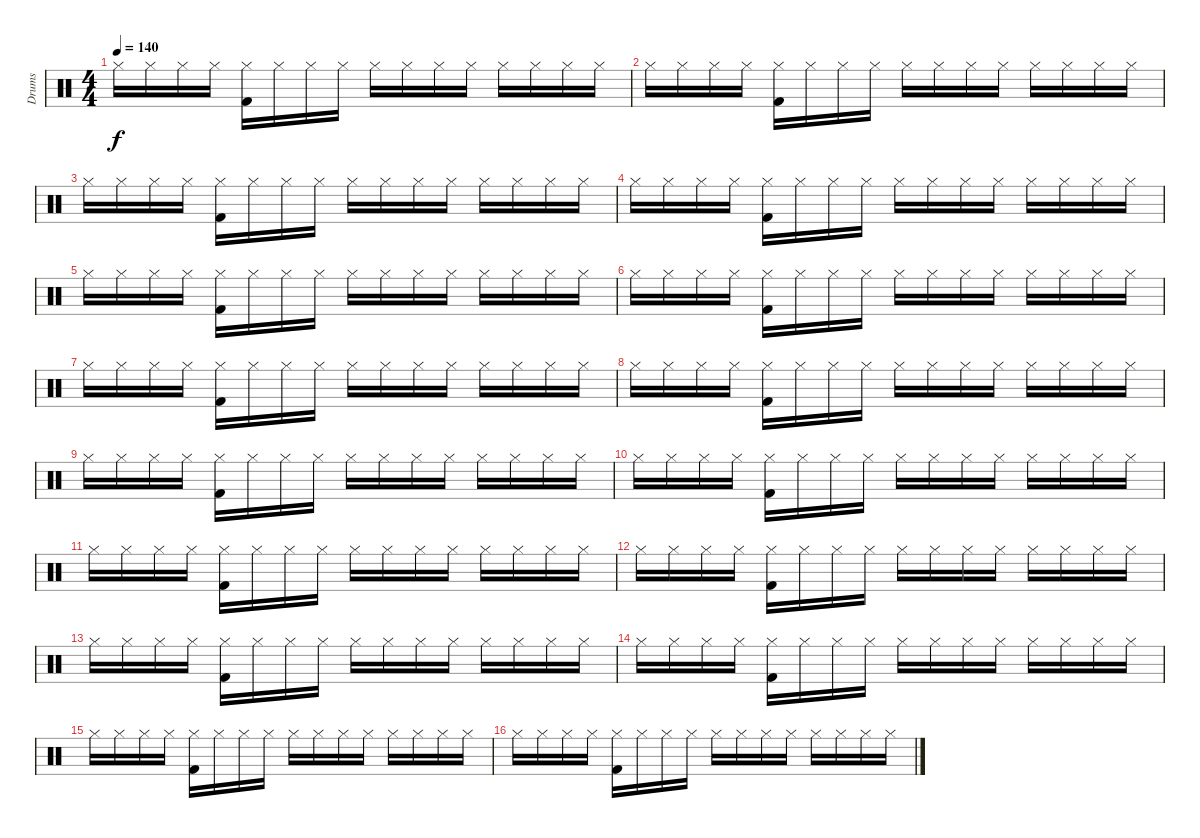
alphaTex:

\track ("Drums" "Drums") {instrument percussion}
\staff {score}
\articulation defaults
\ts (4 4)
\tempo 140
\clef neutral
\ks c "Hi-Hat (closed)".16{dy f} "Hi-Hat (closed)".16 "Hi-Hat (closed)".16 "Hi-Hat (closed)".16
("Hi-Hat (closed)" "Kick (hit) 2").16 "Hi-Hat (closed)".16 "Hi-Hat (closed)".16 "Hi-Hat (closed)".16 "Hi-Hat (closed)".16 "Hi-Hat (closed)".16 "Hi-Hat (closed)".16 "Hi-Hat (closed)".16 "Hi-Hat (closed)".16 "Hi-Hat (closed)".16 "Hi-Hat (closed)".16 "Hi-Hat (closed)".16 |
"Hi-Hat (closed)".16 "Hi-Hat (closed)".16 "Hi-Hat (closed)".16 "Hi-Hat (closed)".16 ("Hi-Hat (closed)" "Kick (hit) 2").16 "Hi-Hat (closed)".16 "Hi-Hat (closed)".16 "Hi-Hat (closed)".16 "Hi-Hat (closed)".16 "Hi-Hat (closed)".16 "Hi-Hat (closed)".16 "Hi-Hat (closed)".16 "Hi-Hat (closed)".16 "Hi-Hat (closed)".16 "Hi-Hat (closed)".16 "Hi-Hat (closed)".16 |
"Hi-Hat (closed)".16 "Hi-Hat (closed)".16 "Hi-Hat (closed)".16 "Hi-Hat (closed)".16 ("Hi-Hat (closed)" "Kick (hit) 2").16 "Hi-Hat (closed)".16 "Hi-Hat (closed)".16 "Hi-Hat (closed)".16 "Hi-Hat (closed)".16 "Hi-Hat (closed)".16 "Hi-Hat (closed)".16 "Hi-Hat (closed)".16 "Hi-Hat (closed)".16 "Hi-Hat (closed)".16 "Hi-Hat (closed)".16 "Hi-Hat (closed)".16 |
"Hi-Hat (closed)".16 "Hi-Hat (closed)".16 "Hi-Hat (closed)".16 "Hi-Hat (closed)".16 ("Hi-Hat (closed)" "Kick (hit) 2").16 "Hi-Hat (closed)".16 "Hi-Hat (closed)".16 "Hi-Hat (closed)".16 "Hi-Hat (closed)".16 "Hi-Hat (closed)".16 "Hi-Hat (closed)".16 "Hi-Hat (closed)".16 "Hi-Hat (closed)".16 "Hi-Hat (closed)".16 "Hi-Hat (closed)".16 "Hi-Hat (closed)".16 |
"Hi-Hat (closed)".16 "Hi-Hat (closed)".16 "Hi-Hat (closed)".16 "Hi-Hat (closed)".16 ("Hi-Hat (closed)" "Kick (hit) 2").16 "Hi-Hat (closed)".16 "Hi-Hat (closed)".16 "Hi-Hat (closed)".16 "Hi-Hat (closed)".16 "Hi-Hat (closed)".16 "Hi-Hat (closed)".16 "Hi-Hat (closed)".16 "Hi-Hat (closed)".16 "Hi-Hat (closed)".16 "Hi-Hat (closed)".16 "Hi-Hat (closed)".16 |
"Hi-Hat (closed)".16 "Hi-Hat (closed)".16 "Hi-Hat (closed)".16 "Hi-Hat (closed)".16 ("Hi-Hat (closed)" "Kick (hit) 2").16 "Hi-Hat (closed)".16 "Hi-Hat (closed)".16 "Hi-Hat (closed)".16 "Hi-Hat (closed)".16 "Hi-Hat (closed)".16 "Hi-Hat (closed)".16 "Hi-Hat (closed)".16 "Hi-Hat (closed)".16 "Hi-Hat (closed)".16 "Hi-Hat (closed)".16 "Hi-Hat (closed)".16 |
"Hi-Hat (closed)".16 "Hi-Hat (closed)".16 "Hi-Hat (closed)".16 "Hi-Hat (closed)".16 ("Hi-Hat (closed)" "Kick (hit) 2").16 "Hi-Hat (closed)".16 "Hi-Hat (closed)".16 "Hi-Hat (closed)".16 "Hi-Hat (closed)".16 "Hi-Hat (closed)".16 "Hi-Hat (closed)".16 "Hi-Hat (closed)".16 "Hi-Hat (closed)".16 "Hi-Hat (closed)".16 "Hi-Hat (closed)".16 "Hi-Hat (closed)".16 |
"Hi-Hat (closed)".16 "Hi-Hat (closed)".16 "Hi-Hat (closed)".16 "Hi-Hat (closed)".16 ("Hi-Hat (closed)" "Kick (hit) 2").16 "Hi-Hat (closed)".16 "Hi-Hat (closed)".16 "Hi-Hat (closed)".16 "Hi-Hat (closed)".16 "Hi-Hat (closed)".16 "Hi-Hat (closed)".16 "Hi-Hat (closed)".16 "Hi-Hat (closed)".16 "Hi-Hat (closed)".16 "Hi-Hat (closed)".16 "Hi-Hat (closed)".16 |
"Hi-Hat (closed)".16 "Hi-Hat (closed)".16 "Hi-Hat (closed)".16 "Hi-Hat (closed)".16 ("Hi-Hat (closed)" "Kick (hit) 2").16 "Hi-Hat (closed)".16 "Hi-Hat (closed)".16 "Hi-Hat (closed)".16 "Hi-Hat (closed)".16 "Hi-Hat (closed)".16 "Hi-Hat (closed)".16 "Hi-Hat (closed)".16 "Hi-Hat (closed)".16 "Hi-Hat (closed)".16 "Hi-Hat (closed)".16 "Hi-Hat (closed)".16 |
"Hi-Hat (closed)".16 "Hi-Hat (closed)".16 "Hi-Hat (closed)".16 "Hi-Hat (closed)".16 ("Hi-Hat (closed)" "Kick (hit) 2").16 "Hi-Hat (closed)".16 "Hi-Hat (closed)".16 "Hi-Hat (closed)".16 "Hi-Hat (closed)".16 "Hi-Hat (closed)".16 "Hi-Hat (closed)".16 "Hi-Hat (closed)".16 "Hi-Hat (closed)".16 "Hi-Hat (closed)".16 "Hi-Hat (closed)".16 "Hi-Hat (closed)".16 |
"Hi-Hat (closed)".16 "Hi-Hat (closed)".16 "Hi-Hat (closed)".16 "Hi-Hat (closed)".16 ("Hi-Hat (closed)" "Kick (hit) 2").16 "Hi-Hat (closed)".16 "Hi-Hat (closed)".16 "Hi-Hat (closed)".16 "Hi-Hat (closed)".16 "Hi-Hat (closed)".16 "Hi-Hat (closed)".16 "Hi-Hat (closed)".16 "Hi-Hat (closed)".16 "Hi-Hat (closed)".16 "Hi-Hat (closed)".16 "Hi-Hat (closed)".16 |
"Hi-Hat (closed)".16 "Hi-Hat (closed)".16 "Hi-Hat (closed)".16 "Hi-Hat (closed)".16 ("Hi-Hat (closed)" "Kick (hit) 2").16 "Hi-Hat (closed)".16 "Hi-Hat (closed)".16 "Hi-Hat (closed)".16 "Hi-Hat (closed)".16 "Hi-Hat (closed)".16 "Hi-Hat (closed)".16 "Hi-Hat (closed)".16 "Hi-Hat (closed)".16 "Hi-Hat (closed)".16 "Hi-Hat (closed)".16 "Hi-Hat (closed)".16 |
"Hi-Hat (closed)".16 "Hi-Hat (closed)".16 "Hi-Hat (closed)".16 "Hi-Hat (closed)".16 ("Hi-Hat (closed)" "Kick (hit) 2").16 "Hi-Hat (closed)".16 "Hi-Hat (closed)".16 "Hi-Hat (closed)".16 "Hi-Hat (closed)".16 "Hi-Hat (closed)".16 "Hi-Hat (closed)".16 "Hi-Hat (closed)".16 "Hi-Hat (closed)".16 "Hi-Hat (closed)".16 "Hi-Hat (closed)".16 "Hi-Hat (closed)".16 |
"Hi-Hat (closed)".16 "Hi-Hat (closed)".16 "Hi-Hat (closed)".16 "Hi-Hat (closed)".16 ("Hi-Hat (closed)" "Kick (hit) 2").16 "Hi-Hat (closed)".16 "Hi-Hat (closed)".16 "Hi-Hat (closed)".16 "Hi-Hat (closed)".16 "Hi-Hat (closed)".16 "Hi-Hat (closed)".16 "Hi-Hat (closed)".16 "Hi-Hat (closed)".16 "Hi-Hat (closed)".16 "Hi-Hat (closed)".16 "Hi-Hat (closed)".16 |
"Hi-Hat (closed)".16 "Hi-Hat (closed)".16 "Hi-Hat (closed)".16 "Hi-Hat (closed)".16 ("Hi-Hat (closed)" "Kick (hit) 2").16 "Hi-Hat (closed)".16 "Hi-Hat (closed)".16 "Hi-Hat (closed)".16 "Hi-Hat (closed)".16 "Hi-Hat (closed)".16 "Hi-Hat (closed)".16 "Hi-Hat (closed)".16 "Hi-Hat (closed)".16 "Hi-Hat (closed)".16 "Hi-Hat (closed)".16 "Hi-Hat (closed)".16 |
"Hi-Hat (closed)".16 "Hi-Hat (closed)".16 "Hi-Hat (closed)".16 "Hi-Hat (closed)".16 ("Hi-Hat (closed)" "Kick (hit) 2").16 "Hi-Hat (closed)".16 "Hi-Hat (closed)".16 "Hi-Hat (closed)".16 "Hi-Hat (closed)".16 "Hi-Hat (closed)".16 "Hi-Hat (closed)".16 "Hi-Hat (closed)".16 "Hi-Hat (closed)".16 "Hi-Hat (closed)".16 "Hi-Hat (closed)".16 "Hi-Hat (closed)".16
